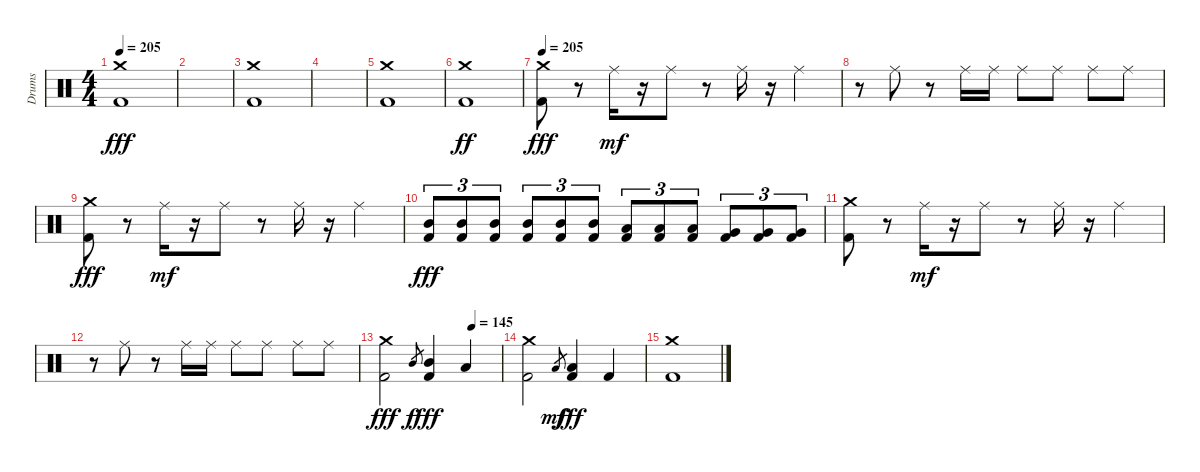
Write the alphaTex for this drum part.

\track ("Drums" "Drums") {instrument percussion}
\staff {score}
\articulation defaults
\ts (4 4)
\tempo 205
\clef neutral
\ks c
("Crash medium (hit)" "Kick (hit) 2").1{dy fff} |
|
("Crash medium (hit)" "Kick (hit) 2").1 |
|
("Crash medium (hit)" "Kick (hit) 2").1 |
("Crash medium (hit)" "Kick (hit) 2").1{dy ff} |
\tempo 205
("Crash medium (hit)" "Kick (hit) 2").8{dy fff} r.8 "Ride (middle)".16{dy mf} r.16 "Ride (middle)".8 r.8 "Ride (middle)".16 r.16 "Ride (middle)".4 |
r.8 "Ride (middle)".8 r.8 "Ride (middle)".16 "Ride (middle)".16 "Ride (middle)".8 "Ride (middle)".8 "Ride (middle)".8 "Ride (middle)".8 |
("Crash medium (hit)" "Kick (hit) 2").8{dy fff} r.8 "Ride (middle)".16{dy mf} r.16 "Ride (middle)".8 r.8 "Ride (middle)".16 r.16 "Ride (middle)".4 |
("Mid Tom (hit)" "Kick (hit) 2").8{tu (3 2) dy fff} ("Mid Tom (hit)" "Kick (hit) 2").8{tu (3 2)} ("Mid Tom (hit)" "Kick (hit) 2").8{tu (3 2)} ("Mid Tom (hit)" "Kick (hit) 2").8{tu (3 2)} ("Mid Tom (hit)" "Kick (hit) 2").8{tu (3 2)} ("Mid Tom (hit)" "Kick (hit) 2").8{tu (3 2)} ("Low Tom (hit)" "Kick (hit) 2").8{tu (3 2)} ("Low Tom (hit)" "Kick (hit) 2").8{tu (3 2)} ("Low Tom (hit)" "Kick (hit) 2").8{tu (3 2)} ("Very Low Tom (hit)" "Kick (hit) 2").8{tu (3 2)} ("Very Low Tom (hit)" "Kick (hit) 2").8{tu (3 2)} ("Very Low Tom (hit)" "Kick (hit) 2").8{tu (3 2)} |
("Crash medium (hit)" "Kick (hit) 2").8 r.8 "Ride (middle)".16{dy mf} r.16 "Ride (middle)".8 r.8 "Ride (middle)".16 r.16 "Ride (middle)".4 |
r.8 "Ride (middle)".8 r.8 "Ride (middle)".16 "Ride (middle)".16 "Ride (middle)".8 "Ride (middle)".8 "Ride (middle)".8 "Ride (middle)".8 |
\tempo (145 0.75)
("Crash medium (hit)" "Kick (hit) 2").2{dy fff} "Mid Tom (hit)".8{gr dy f} ("Mid Tom (hit)" "Kick (hit) 2").4{dy fff} "Low Tom (hit)".4 |
("Crash medium (hit)" "Kick (hit) 2").2 "Low Tom (hit)".8{gr dy mf} ("Low Tom (hit)" "Kick (hit) 2").4{dy fff} "Kick (hit) 2".4 |
("Crash medium (hit)" "Kick (hit) 2").1
